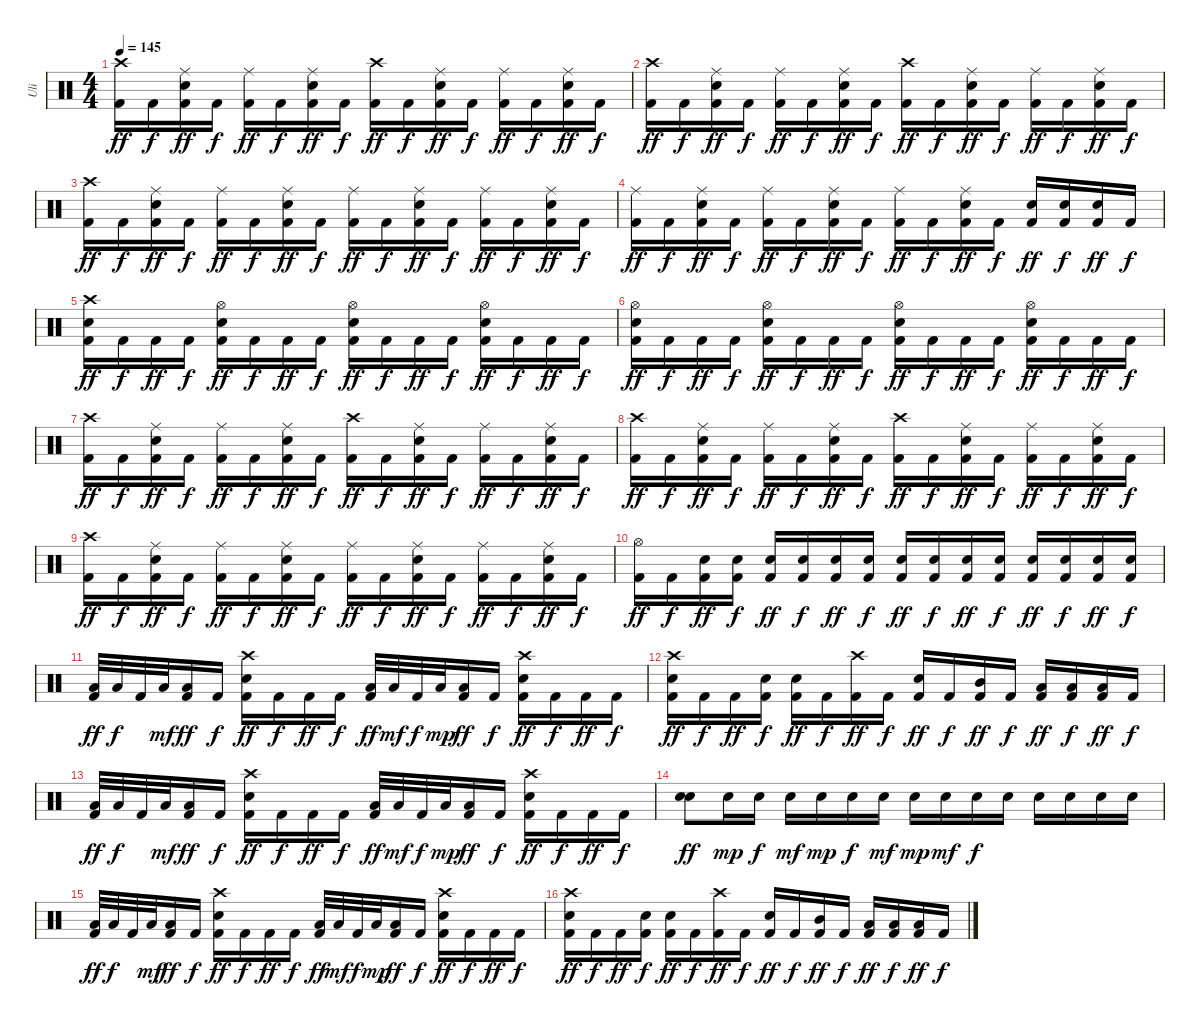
\track ("Uli" "Uli") {instrument percussion}
\staff {score}
\articulation defaults
\ts (4 4)
\tempo 145
\clef neutral
\ks c
("Crash high (hit)" "Kick (hit) 2").16{dy ff} "Kick (hit) 2".16{dy f} ("Ride (middle)" "Electric Snare (hit)" "Kick (hit) 2").16{dy ff} "Kick (hit) 2".16{dy f} ("Ride (middle)" "Kick (hit) 2").16{dy ff} "Kick (hit) 2".16{dy f} ("Ride (middle)" "Electric Snare (hit)" "Kick (hit) 2").16{dy ff} "Kick (hit) 2".16{dy f} ("Crash high (hit)" "Kick (hit) 2").16{dy ff} "Kick (hit) 2".16{dy f} ("Ride (middle)" "Electric Snare (hit)" "Kick (hit) 2").16{dy ff} "Kick (hit) 2".16{dy f} ("Ride (middle)" "Kick (hit) 2").16{dy ff} "Kick (hit) 2".16{dy f} ("Ride (middle)" "Electric Snare (hit)" "Kick (hit) 2").16{dy ff} "Kick (hit) 2".16{dy f} |
("Crash high (hit)" "Kick (hit) 2").16{dy ff} "Kick (hit) 2".16{dy f} ("Ride (middle)" "Electric Snare (hit)" "Kick (hit) 2").16{dy ff} "Kick (hit) 2".16{dy f} ("Ride (middle)" "Kick (hit) 2").16{dy ff} "Kick (hit) 2".16{dy f} ("Ride (middle)" "Electric Snare (hit)" "Kick (hit) 2").16{dy ff} "Kick (hit) 2".16{dy f} ("Crash high (hit)" "Kick (hit) 2").16{dy ff} "Kick (hit) 2".16{dy f} ("Ride (middle)" "Electric Snare (hit)" "Kick (hit) 2").16{dy ff} "Kick (hit) 2".16{dy f} ("Ride (middle)" "Kick (hit) 2").16{dy ff} "Kick (hit) 2".16{dy f} ("Ride (middle)" "Electric Snare (hit)" "Kick (hit) 2").16{dy ff} "Kick (hit) 2".16{dy f} |
("Crash high (hit)" "Kick (hit) 2").16{dy ff} "Kick (hit) 2".16{dy f} ("Ride (middle)" "Electric Snare (hit)" "Kick (hit) 2").16{dy ff} "Kick (hit) 2".16{dy f} ("Ride (middle)" "Kick (hit) 2").16{dy ff} "Kick (hit) 2".16{dy f} ("Ride (middle)" "Electric Snare (hit)" "Kick (hit) 2").16{dy ff} "Kick (hit) 2".16{dy f} ("Ride (middle)" "Kick (hit) 2").16{dy ff} "Kick (hit) 2".16{dy f} ("Ride (middle)" "Electric Snare (hit)" "Kick (hit) 2").16{dy ff} "Kick (hit) 2".16{dy f} ("Ride (middle)" "Kick (hit) 2").16{dy ff} "Kick (hit) 2".16{dy f} ("Ride (middle)" "Electric Snare (hit)" "Kick (hit) 2").16{dy ff} "Kick (hit) 2".16{dy f} |
("Ride (middle)" "Kick (hit) 2").16{dy ff} "Kick (hit) 2".16{dy f} ("Ride (middle)" "Electric Snare (hit)" "Kick (hit) 2").16{dy ff} "Kick (hit) 2".16{dy f} ("Ride (middle)" "Kick (hit) 2").16{dy ff} "Kick (hit) 2".16{dy f} ("Ride (middle)" "Electric Snare (hit)" "Kick (hit) 2").16{dy ff} "Kick (hit) 2".16{dy f} ("Ride (middle)" "Kick (hit) 2").16{dy ff} "Kick (hit) 2".16{dy f} ("Ride (middle)" "Electric Snare (hit)" "Kick (hit) 2").16{dy ff} "Kick (hit) 2".16{dy f} ("Electric Snare (hit)" "Kick (hit) 2").16{dy ff} ("Electric Snare (hit)" "Kick (hit) 2").16{dy f} ("Electric Snare (hit)" "Kick (hit) 2").16{dy ff} "Kick (hit) 2".16{dy f} |
("Crash high (hit)" "Electric Snare (hit)" "Kick (hit) 2").16{dy ff} "Kick (hit) 2".16{dy f} "Kick (hit) 2".16{dy ff} "Kick (hit) 2".16{dy f} ("Hi-Hat (open)" "Electric Snare (hit)" "Kick (hit) 2").16{dy ff} "Kick (hit) 2".16{dy f} "Kick (hit) 2".16{dy ff} "Kick (hit) 2".16{dy f} ("Hi-Hat (open)" "Electric Snare (hit)" "Kick (hit) 2").16{dy ff} "Kick (hit) 2".16{dy f} "Kick (hit) 2".16{dy ff} "Kick (hit) 2".16{dy f} ("Hi-Hat (open)" "Electric Snare (hit)" "Kick (hit) 2").16{dy ff} "Kick (hit) 2".16{dy f} "Kick (hit) 2".16{dy ff} "Kick (hit) 2".16{dy f} |
("Hi-Hat (open)" "Electric Snare (hit)" "Kick (hit) 2").16{dy ff} "Kick (hit) 2".16{dy f} "Kick (hit) 2".16{dy ff} "Kick (hit) 2".16{dy f} ("Hi-Hat (open)" "Electric Snare (hit)" "Kick (hit) 2").16{dy ff} "Kick (hit) 2".16{dy f} "Kick (hit) 2".16{dy ff} "Kick (hit) 2".16{dy f} ("Hi-Hat (open)" "Electric Snare (hit)" "Kick (hit) 2").16{dy ff} "Kick (hit) 2".16{dy f} "Kick (hit) 2".16{dy ff} "Kick (hit) 2".16{dy f} ("Hi-Hat (open)" "Electric Snare (hit)" "Kick (hit) 2").16{dy ff} "Kick (hit) 2".16{dy f} "Kick (hit) 2".16{dy ff} "Kick (hit) 2".16{dy f} |
("Crash high (hit)" "Kick (hit) 2").16{dy ff} "Kick (hit) 2".16{dy f} ("Ride (middle)" "Electric Snare (hit)" "Kick (hit) 2").16{dy ff} "Kick (hit) 2".16{dy f} ("Ride (middle)" "Kick (hit) 2").16{dy ff} "Kick (hit) 2".16{dy f} ("Ride (middle)" "Electric Snare (hit)" "Kick (hit) 2").16{dy ff} "Kick (hit) 2".16{dy f} ("Crash high (hit)" "Kick (hit) 2").16{dy ff} "Kick (hit) 2".16{dy f} ("Ride (middle)" "Electric Snare (hit)" "Kick (hit) 2").16{dy ff} "Kick (hit) 2".16{dy f} ("Ride (middle)" "Kick (hit) 2").16{dy ff} "Kick (hit) 2".16{dy f} ("Ride (middle)" "Electric Snare (hit)" "Kick (hit) 2").16{dy ff} "Kick (hit) 2".16{dy f} |
("Crash high (hit)" "Kick (hit) 2").16{dy ff} "Kick (hit) 2".16{dy f} ("Ride (middle)" "Electric Snare (hit)" "Kick (hit) 2").16{dy ff} "Kick (hit) 2".16{dy f} ("Ride (middle)" "Kick (hit) 2").16{dy ff} "Kick (hit) 2".16{dy f} ("Ride (middle)" "Electric Snare (hit)" "Kick (hit) 2").16{dy ff} "Kick (hit) 2".16{dy f} ("Crash high (hit)" "Kick (hit) 2").16{dy ff} "Kick (hit) 2".16{dy f} ("Ride (middle)" "Electric Snare (hit)" "Kick (hit) 2").16{dy ff} "Kick (hit) 2".16{dy f} ("Ride (middle)" "Kick (hit) 2").16{dy ff} "Kick (hit) 2".16{dy f} ("Ride (middle)" "Electric Snare (hit)" "Kick (hit) 2").16{dy ff} "Kick (hit) 2".16{dy f} |
("Crash high (hit)" "Kick (hit) 2").16{dy ff} "Kick (hit) 2".16{dy f} ("Ride (middle)" "Electric Snare (hit)" "Kick (hit) 2").16{dy ff} "Kick (hit) 2".16{dy f} ("Ride (middle)" "Kick (hit) 2").16{dy ff} "Kick (hit) 2".16{dy f} ("Ride (middle)" "Electric Snare (hit)" "Kick (hit) 2").16{dy ff} "Kick (hit) 2".16{dy f} ("Ride (middle)" "Kick (hit) 2").16{dy ff} "Kick (hit) 2".16{dy f} ("Ride (middle)" "Electric Snare (hit)" "Kick (hit) 2").16{dy ff} "Kick (hit) 2".16{dy f} ("Ride (middle)" "Kick (hit) 2").16{dy ff} "Kick (hit) 2".16{dy f} ("Ride (middle)" "Electric Snare (hit)" "Kick (hit) 2").16{dy ff} "Kick (hit) 2".16{dy f} |
("Hi-Hat (open)" "Kick (hit) 2").16{dy ff} "Kick (hit) 2".16{dy f} ("Electric Snare (hit)" "Kick (hit) 2").16{dy ff} ("Electric Snare (hit)" "Kick (hit) 2").16{dy f} ("Electric Snare (hit)" "Kick (hit) 2").16{dy ff} ("Electric Snare (hit)" "Kick (hit) 2").16{dy f} ("Electric Snare (hit)" "Kick (hit) 2").16{dy ff} ("Electric Snare (hit)" "Kick (hit) 2").16{dy f} ("Electric Snare (hit)" "Kick (hit) 2").16{dy ff} ("Electric Snare (hit)" "Kick (hit) 2").16{dy f} ("Electric Snare (hit)" "Kick (hit) 2").16{dy ff} ("Electric Snare (hit)" "Kick (hit) 2").16{dy f} ("Electric Snare (hit)" "Kick (hit) 2").16{dy ff} ("Electric Snare (hit)" "Kick (hit) 2").16{dy f} ("Electric Snare (hit)" "Kick (hit) 2").16{dy ff} ("Electric Snare (hit)" "Kick (hit) 2").16{dy f} |
("Low Tom (hit)" "Kick (hit) 2").32{dy ff} "Low Tom (hit)".32{dy f} "Kick (hit) 2".32 "Low Tom (hit)".32{dy mf} ("Low Tom (hit)" "Kick (hit) 2").16{dy ff} "Kick (hit) 2".16{dy f} ("Crash high (hit)" "Electric Snare (hit)" "Kick (hit) 2").16{dy ff} "Kick (hit) 2".16{dy f} "Kick (hit) 2".16{dy ff} "Kick (hit) 2".16{dy f} ("Low Tom (hit)" "Kick (hit) 2").32{dy ff} "Low Tom (hit)".32{dy mf} "Kick (hit) 2".32{dy f} "Low Tom (hit)".32{dy mp} ("Low Tom (hit)" "Kick (hit) 2").16{dy ff} "Kick (hit) 2".16{dy f} ("Crash high (hit)" "Electric Snare (hit)" "Kick (hit) 2").16{dy ff} "Kick (hit) 2".16{dy f} "Kick (hit) 2".16{dy ff} "Kick (hit) 2".16{dy f} |
("Crash high (hit)" "Electric Snare (hit)" "Kick (hit) 2").16{dy ff} "Kick (hit) 2".16{dy f} "Kick (hit) 2".16{dy ff} ("Electric Snare (hit)" "Kick (hit) 2").16{dy f} ("Electric Snare (hit)" "Kick (hit) 2").16{dy ff} "Kick (hit) 2".16{dy f} ("Crash high (hit)" "Kick (hit) 2").16{dy ff} "Kick (hit) 2".16{dy f} ("Electric Snare (hit)" "Kick (hit) 2").16{dy ff} "Kick (hit) 2".16{dy f} ("Mid Tom (hit)" "Kick (hit) 2").16{dy ff} "Kick (hit) 2".16{dy f} ("Low Tom (hit)" "Kick (hit) 2").16{dy ff} ("Low Tom (hit)" "Kick (hit) 2").16{dy f} ("Low Tom (hit)" "Kick (hit) 2").16{dy ff} "Kick (hit) 2".16{dy f} |
("Low Tom (hit)" "Kick (hit) 2").32{dy ff} "Low Tom (hit)".32{dy f} "Kick (hit) 2".32 "Low Tom (hit)".32{dy mf} ("Low Tom (hit)" "Kick (hit) 2").16{dy ff} "Kick (hit) 2".16{dy f} ("Crash high (hit)" "Electric Snare (hit)" "Kick (hit) 2").16{dy ff} "Kick (hit) 2".16{dy f} "Kick (hit) 2".16{dy ff} "Kick (hit) 2".16{dy f} ("Low Tom (hit)" "Kick (hit) 2").32{dy ff} "Low Tom (hit)".32{dy mf} "Kick (hit) 2".32{dy f} "Low Tom (hit)".32{dy mp} ("Low Tom (hit)" "Kick (hit) 2").16{dy ff} "Kick (hit) 2".16{dy f} ("Crash high (hit)" "Electric Snare (hit)" "Kick (hit) 2").16{dy ff} "Kick (hit) 2".16{dy f} "Kick (hit) 2".16{dy ff} "Kick (hit) 2".16{dy f} |
("Electric Snare (hit)" "Electric Snare (hit)").8{dy ff} "Electric Snare (hit)".16{dy mp} "Electric Snare (hit)".16{dy f} "Electric Snare (hit)".16{dy mf} "Electric Snare (hit)".16{dy mp} "Electric Snare (hit)".16{dy f} "Electric Snare (hit)".16{dy mf} "Electric Snare (hit)".16{dy mp} "Electric Snare (hit)".16{dy mf} "Electric Snare (hit)".16{dy f} "Electric Snare (hit)".16 "Electric Snare (hit)".16 "Electric Snare (hit)".16 "Electric Snare (hit)".16 "Electric Snare (hit)".16 |
("Low Tom (hit)" "Kick (hit) 2").32{dy ff} "Low Tom (hit)".32{dy f} "Kick (hit) 2".32 "Low Tom (hit)".32{dy mf} ("Low Tom (hit)" "Kick (hit) 2").16{dy ff} "Kick (hit) 2".16{dy f} ("Crash high (hit)" "Electric Snare (hit)" "Kick (hit) 2").16{dy ff} "Kick (hit) 2".16{dy f} "Kick (hit) 2".16{dy ff} "Kick (hit) 2".16{dy f} ("Low Tom (hit)" "Kick (hit) 2").32{dy ff} "Low Tom (hit)".32{dy mf} "Kick (hit) 2".32{dy f} "Low Tom (hit)".32{dy mp} ("Low Tom (hit)" "Kick (hit) 2").16{dy ff} "Kick (hit) 2".16{dy f} ("Crash high (hit)" "Electric Snare (hit)" "Kick (hit) 2").16{dy ff} "Kick (hit) 2".16{dy f} "Kick (hit) 2".16{dy ff} "Kick (hit) 2".16{dy f} |
("Crash high (hit)" "Electric Snare (hit)" "Kick (hit) 2").16{dy ff} "Kick (hit) 2".16{dy f} "Kick (hit) 2".16{dy ff} ("Electric Snare (hit)" "Kick (hit) 2").16{dy f} ("Electric Snare (hit)" "Kick (hit) 2").16{dy ff} "Kick (hit) 2".16{dy f} ("Crash high (hit)" "Kick (hit) 2").16{dy ff} "Kick (hit) 2".16{dy f} ("Electric Snare (hit)" "Kick (hit) 2").16{dy ff} "Kick (hit) 2".16{dy f} ("Mid Tom (hit)" "Kick (hit) 2").16{dy ff} "Kick (hit) 2".16{dy f} ("Low Tom (hit)" "Kick (hit) 2").16{dy ff} ("Low Tom (hit)" "Kick (hit) 2").16{dy f} ("Low Tom (hit)" "Kick (hit) 2").16{dy ff} "Kick (hit) 2".16{dy f}
